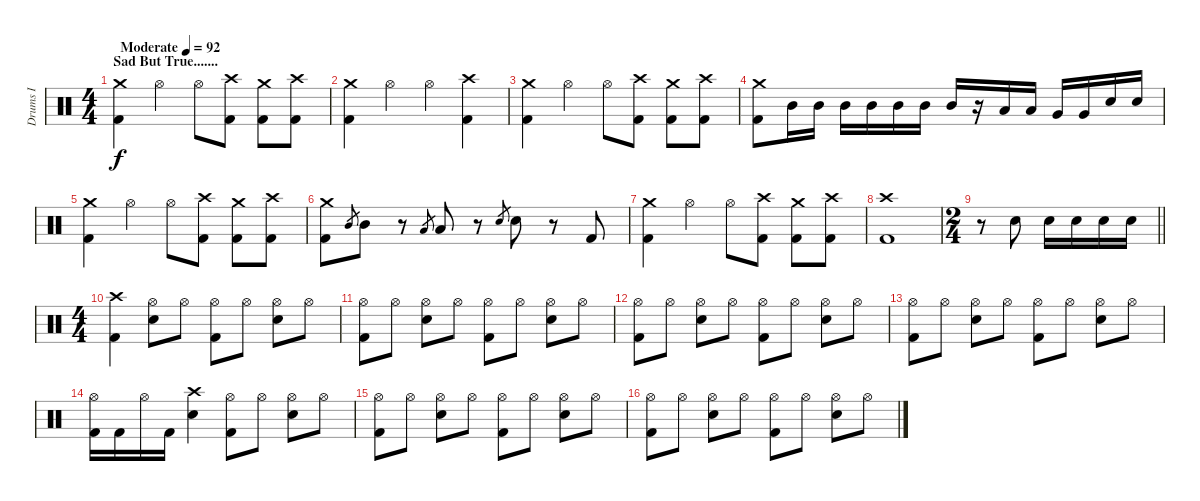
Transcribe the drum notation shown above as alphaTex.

\track ("Drums I" "Drums I") {instrument percussion}
\staff {score}
\articulation defaults
\ts (4 4)
\section ("" "Sad But True.......")
\tempo (92 "Moderate")
\clef neutral
\ks c
("Crash medium (hit)" "Kick (hit) 2").4{dy f} "Hi-Hat (open)".4 "Hi-Hat (open)".8 ("Crash high (hit)" "Kick (hit) 2").8 ("Crash medium (hit)" "Kick (hit) 2").8 ("Crash high (hit)" "Kick (hit) 2").8 |
("Crash medium (hit)" "Kick (hit) 2").4 "Hi-Hat (open)".4 "Hi-Hat (open)".4 ("Crash high (hit)" "Kick (hit) 2").4 |
("Crash medium (hit)" "Kick (hit) 2").4 "Hi-Hat (open)".4 "Hi-Hat (open)".8 ("Crash high (hit)" "Kick (hit) 2").8 ("Crash medium (hit)" "Kick (hit) 2").8 ("Crash high (hit)" "Kick (hit) 2").8 |
("Crash medium (hit)" "Kick (hit) 2").8 "Mid Tom (hit)".16 "Mid Tom (hit)".16 "Mid Tom (hit)".16 "Mid Tom (hit)".16 "Mid Tom (hit)".16 "Mid Tom (hit)".16 "Mid Tom (hit)".16 r.16 "Low Tom (hit)".16 "Low Tom (hit)".16 "Very Low Tom (hit)".16 "Very Low Tom (hit)".16 "Electric Snare (hit)".16 "Electric Snare (hit)".16 |
("Crash medium (hit)" "Kick (hit) 2").4 "Hi-Hat (open)".4 "Hi-Hat (open)".8 ("Crash high (hit)" "Kick (hit) 2").8 ("Crash medium (hit)" "Kick (hit) 2").8 ("Crash high (hit)" "Kick (hit) 2").8 |
("Crash medium (hit)" "Kick (hit) 2").8 "Mid Tom (hit)".8{gr} "Mid Tom (hit)".8 r.8 "Low Tom (hit)".8{gr} "Low Tom (hit)".8 r.8 "Electric Snare (hit)".8{gr} "Electric Snare (hit)".8 r.8 "Kick (hit) 2".8 |
("Crash medium (hit)" "Kick (hit) 2").4 "Hi-Hat (open)".4 "Hi-Hat (open)".8 ("Crash high (hit)" "Kick (hit) 2").8 ("Crash medium (hit)" "Kick (hit) 2").8 ("Crash high (hit)" "Kick (hit) 2").8 |
("Crash high (hit)" "Kick (hit) 2").1 |
\ts (2 4)
\barLineRight lightlight
r.8 "Electric Snare (hit)".8 "Electric Snare (hit)".16 "Electric Snare (hit)".16 "Electric Snare (hit)".16 "Electric Snare (hit)".16 |
\ts (4 4)
\section ("" "")
("Crash high (hit)" "Kick (hit) 2").4 ("Hi-Hat (open)" "Electric Snare (hit)").8 "Hi-Hat (open)".8 ("Hi-Hat (open)" "Kick (hit) 2").8 "Hi-Hat (open)".8 ("Hi-Hat (open)" "Electric Snare (hit)").8 "Hi-Hat (open)".8 |
("Hi-Hat (open)" "Kick (hit) 2").8 "Hi-Hat (open)".8 ("Hi-Hat (open)" "Electric Snare (hit)").8 "Hi-Hat (open)".8 ("Hi-Hat (open)" "Kick (hit) 2").8 "Hi-Hat (open)".8 ("Hi-Hat (open)" "Electric Snare (hit)").8 "Hi-Hat (open)".8 |
("Hi-Hat (open)" "Kick (hit) 2").8 "Hi-Hat (open)".8 ("Hi-Hat (open)" "Electric Snare (hit)").8 "Hi-Hat (open)".8 ("Hi-Hat (open)" "Kick (hit) 2").8 "Hi-Hat (open)".8 ("Hi-Hat (open)" "Electric Snare (hit)").8 "Hi-Hat (open)".8 |
("Hi-Hat (open)" "Kick (hit) 2").8 "Hi-Hat (open)".8 ("Hi-Hat (open)" "Electric Snare (hit)").8 "Hi-Hat (open)".8 ("Hi-Hat (open)" "Kick (hit) 2").8 "Hi-Hat (open)".8 ("Hi-Hat (open)" "Electric Snare (hit)").8 "Hi-Hat (open)".8 |
("Hi-Hat (open)" "Kick (hit) 2").16 "Kick (hit) 2".16 "Hi-Hat (open)".16 "Kick (hit) 2".16 ("Crash high (hit)" "Electric Snare (hit)").4 ("Hi-Hat (open)" "Kick (hit) 2").8 "Hi-Hat (open)".8 ("Hi-Hat (open)" "Electric Snare (hit)").8 "Hi-Hat (open)".8 |
("Hi-Hat (open)" "Kick (hit) 2").8 "Hi-Hat (open)".8 ("Hi-Hat (open)" "Electric Snare (hit)").8 "Hi-Hat (open)".8 ("Hi-Hat (open)" "Kick (hit) 2").8 "Hi-Hat (open)".8 ("Hi-Hat (open)" "Electric Snare (hit)").8 "Hi-Hat (open)".8 |
("Hi-Hat (open)" "Kick (hit) 2").8 "Hi-Hat (open)".8 ("Hi-Hat (open)" "Electric Snare (hit)").8 "Hi-Hat (open)".8 ("Hi-Hat (open)" "Kick (hit) 2").8 "Hi-Hat (open)".8 ("Hi-Hat (open)" "Electric Snare (hit)").8 "Hi-Hat (open)".8
